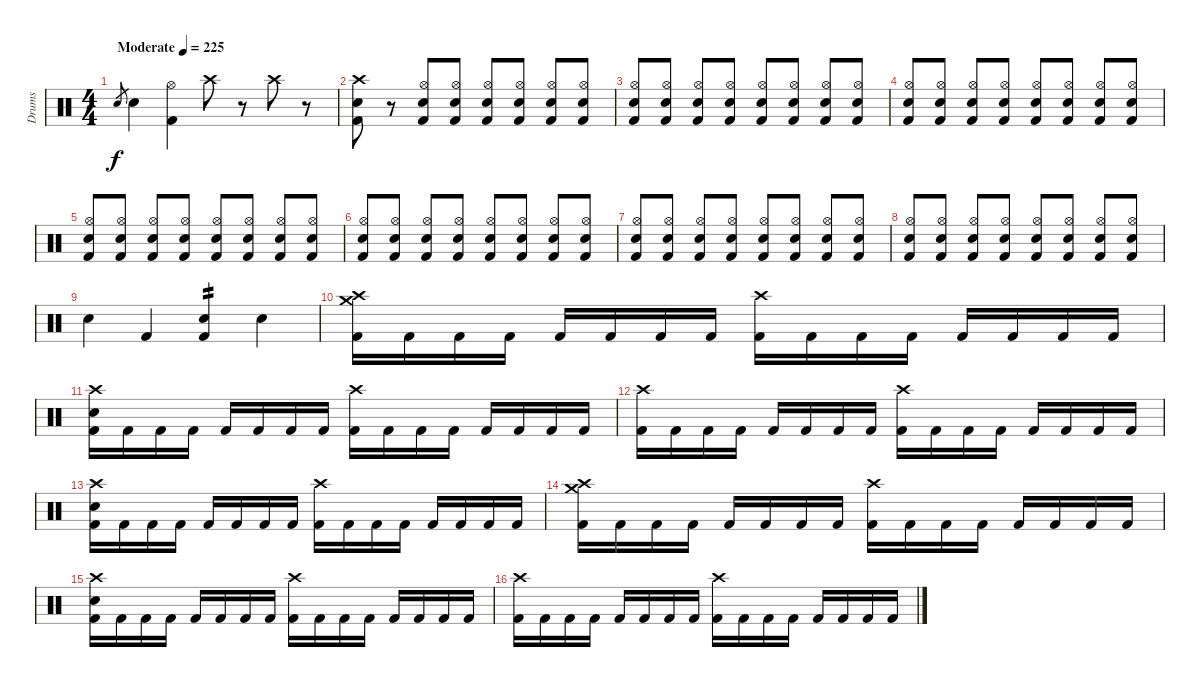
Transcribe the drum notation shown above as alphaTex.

\track ("Drums" "Drums") {instrument percussion}
\staff {score}
\articulation defaults
\ts (4 4)
\tempo (225 "Moderate")
\clef neutral
\ks c "Electric Snare (hit)".8{gr dy f} "Electric Snare (hit)".4
("Hi-Hat (open)" "Kick (hit) 2").4 "Crash high (hit)".8 r.8{volume 0} "Crash high (hit)".8{volume 13} r.8{volume 0} |
("Crash high (hit)" "Electric Snare (hit)" "Kick (hit) 2").8{volume 13} r.8 ("Hi-Hat (open)" "Electric Snare (hit)" "Kick (hit) 2").8 ("Hi-Hat (open)" "Electric Snare (hit)" "Kick (hit) 2").8 ("Hi-Hat (open)" "Electric Snare (hit)" "Kick (hit) 2").8 ("Hi-Hat (open)" "Electric Snare (hit)" "Kick (hit) 2").8 ("Hi-Hat (open)" "Electric Snare (hit)" "Kick (hit) 2").8 ("Hi-Hat (open)" "Electric Snare (hit)" "Kick (hit) 2").8 |
("Hi-Hat (open)" "Electric Snare (hit)" "Kick (hit) 2").8 ("Hi-Hat (open)" "Electric Snare (hit)" "Kick (hit) 2").8 ("Hi-Hat (open)" "Electric Snare (hit)" "Kick (hit) 2").8 ("Hi-Hat (open)" "Electric Snare (hit)" "Kick (hit) 2").8 ("Hi-Hat (open)" "Electric Snare (hit)" "Kick (hit) 2").8 ("Hi-Hat (open)" "Electric Snare (hit)" "Kick (hit) 2").8 ("Hi-Hat (open)" "Electric Snare (hit)" "Kick (hit) 2").8 ("Hi-Hat (open)" "Electric Snare (hit)" "Kick (hit) 2").8 |
("Hi-Hat (open)" "Electric Snare (hit)" "Kick (hit) 2").8 ("Hi-Hat (open)" "Electric Snare (hit)" "Kick (hit) 2").8 ("Hi-Hat (open)" "Electric Snare (hit)" "Kick (hit) 2").8 ("Hi-Hat (open)" "Electric Snare (hit)" "Kick (hit) 2").8 ("Hi-Hat (open)" "Electric Snare (hit)" "Kick (hit) 2").8 ("Hi-Hat (open)" "Electric Snare (hit)" "Kick (hit) 2").8 ("Hi-Hat (open)" "Electric Snare (hit)" "Kick (hit) 2").8 ("Hi-Hat (open)" "Electric Snare (hit)" "Kick (hit) 2").8 |
("Hi-Hat (open)" "Electric Snare (hit)" "Kick (hit) 2").8 ("Hi-Hat (open)" "Electric Snare (hit)" "Kick (hit) 2").8 ("Hi-Hat (open)" "Electric Snare (hit)" "Kick (hit) 2").8 ("Hi-Hat (open)" "Electric Snare (hit)" "Kick (hit) 2").8 ("Hi-Hat (open)" "Electric Snare (hit)" "Kick (hit) 2").8 ("Hi-Hat (open)" "Electric Snare (hit)" "Kick (hit) 2").8 ("Hi-Hat (open)" "Electric Snare (hit)" "Kick (hit) 2").8 ("Hi-Hat (open)" "Electric Snare (hit)" "Kick (hit) 2").8 |
("Hi-Hat (open)" "Electric Snare (hit)" "Kick (hit) 2").8 ("Hi-Hat (open)" "Electric Snare (hit)" "Kick (hit) 2").8 ("Hi-Hat (open)" "Electric Snare (hit)" "Kick (hit) 2").8 ("Hi-Hat (open)" "Electric Snare (hit)" "Kick (hit) 2").8 ("Hi-Hat (open)" "Electric Snare (hit)" "Kick (hit) 2").8 ("Hi-Hat (open)" "Electric Snare (hit)" "Kick (hit) 2").8 ("Hi-Hat (open)" "Electric Snare (hit)" "Kick (hit) 2").8 ("Hi-Hat (open)" "Electric Snare (hit)" "Kick (hit) 2").8 |
("Hi-Hat (open)" "Electric Snare (hit)" "Kick (hit) 2").8 ("Hi-Hat (open)" "Electric Snare (hit)" "Kick (hit) 2").8 ("Hi-Hat (open)" "Electric Snare (hit)" "Kick (hit) 2").8 ("Hi-Hat (open)" "Electric Snare (hit)" "Kick (hit) 2").8 ("Hi-Hat (open)" "Electric Snare (hit)" "Kick (hit) 2").8 ("Hi-Hat (open)" "Electric Snare (hit)" "Kick (hit) 2").8 ("Hi-Hat (open)" "Electric Snare (hit)" "Kick (hit) 2").8 ("Hi-Hat (open)" "Electric Snare (hit)" "Kick (hit) 2").8 |
("Hi-Hat (open)" "Electric Snare (hit)" "Kick (hit) 2").8 ("Hi-Hat (open)" "Electric Snare (hit)" "Kick (hit) 2").8 ("Hi-Hat (open)" "Electric Snare (hit)" "Kick (hit) 2").8 ("Hi-Hat (open)" "Electric Snare (hit)" "Kick (hit) 2").8 ("Hi-Hat (open)" "Electric Snare (hit)" "Kick (hit) 2").8 ("Hi-Hat (open)" "Electric Snare (hit)" "Kick (hit) 2").8 ("Hi-Hat (open)" "Electric Snare (hit)" "Kick (hit) 2").8 ("Hi-Hat (open)" "Electric Snare (hit)" "Kick (hit) 2").8 |
"Electric Snare (hit)".4 "Kick (hit) 2".4 ("Electric Snare (hit)" "Kick (hit) 2").4{tp 2} "Electric Snare (hit)".4 |
("Crash high (hit)" "Crash medium (hit)" "Kick (hit) 2").16 "Kick (hit) 2".16 "Kick (hit) 2".16 "Kick (hit) 2".16 "Kick (hit) 2".16 "Kick (hit) 2".16 "Kick (hit) 2".16 "Kick (hit) 2".16 ("Crash high (hit)" "Kick (hit) 2").16 "Kick (hit) 2".16 "Kick (hit) 2".16 "Kick (hit) 2".16 "Kick (hit) 2".16 "Kick (hit) 2".16 "Kick (hit) 2".16 "Kick (hit) 2".16 |
("Crash high (hit)" "Electric Snare (hit)" "Kick (hit) 2").16 "Kick (hit) 2".16 "Kick (hit) 2".16 "Kick (hit) 2".16 "Kick (hit) 2".16 "Kick (hit) 2".16 "Kick (hit) 2".16 "Kick (hit) 2".16 ("Crash high (hit)" "Kick (hit) 2").16 "Kick (hit) 2".16 "Kick (hit) 2".16 "Kick (hit) 2".16 "Kick (hit) 2".16 "Kick (hit) 2".16 "Kick (hit) 2".16 "Kick (hit) 2".16 |
("Crash high (hit)" "Kick (hit) 2").16 "Kick (hit) 2".16 "Kick (hit) 2".16 "Kick (hit) 2".16 "Kick (hit) 2".16 "Kick (hit) 2".16 "Kick (hit) 2".16 "Kick (hit) 2".16 ("Crash high (hit)" "Kick (hit) 2").16 "Kick (hit) 2".16 "Kick (hit) 2".16 "Kick (hit) 2".16 "Kick (hit) 2".16 "Kick (hit) 2".16 "Kick (hit) 2".16 "Kick (hit) 2".16 |
("Crash high (hit)" "Electric Snare (hit)" "Kick (hit) 2").16 "Kick (hit) 2".16 "Kick (hit) 2".16 "Kick (hit) 2".16 "Kick (hit) 2".16 "Kick (hit) 2".16 "Kick (hit) 2".16 "Kick (hit) 2".16 ("Crash high (hit)" "Kick (hit) 2").16 "Kick (hit) 2".16 "Kick (hit) 2".16 "Kick (hit) 2".16 "Kick (hit) 2".16 "Kick (hit) 2".16 "Kick (hit) 2".16 "Kick (hit) 2".16 |
("Crash high (hit)" "Crash medium (hit)" "Kick (hit) 2").16 "Kick (hit) 2".16 "Kick (hit) 2".16 "Kick (hit) 2".16 "Kick (hit) 2".16 "Kick (hit) 2".16 "Kick (hit) 2".16 "Kick (hit) 2".16 ("Crash high (hit)" "Kick (hit) 2").16 "Kick (hit) 2".16 "Kick (hit) 2".16 "Kick (hit) 2".16 "Kick (hit) 2".16 "Kick (hit) 2".16 "Kick (hit) 2".16 "Kick (hit) 2".16 |
("Crash high (hit)" "Electric Snare (hit)" "Kick (hit) 2").16 "Kick (hit) 2".16 "Kick (hit) 2".16 "Kick (hit) 2".16 "Kick (hit) 2".16 "Kick (hit) 2".16 "Kick (hit) 2".16 "Kick (hit) 2".16 ("Crash high (hit)" "Kick (hit) 2").16 "Kick (hit) 2".16 "Kick (hit) 2".16 "Kick (hit) 2".16 "Kick (hit) 2".16 "Kick (hit) 2".16 "Kick (hit) 2".16 "Kick (hit) 2".16 |
("Crash high (hit)" "Kick (hit) 2").16 "Kick (hit) 2".16 "Kick (hit) 2".16 "Kick (hit) 2".16 "Kick (hit) 2".16 "Kick (hit) 2".16 "Kick (hit) 2".16 "Kick (hit) 2".16 ("Crash high (hit)" "Kick (hit) 2").16 "Kick (hit) 2".16 "Kick (hit) 2".16 "Kick (hit) 2".16 "Kick (hit) 2".16 "Kick (hit) 2".16 "Kick (hit) 2".16 "Kick (hit) 2".16
